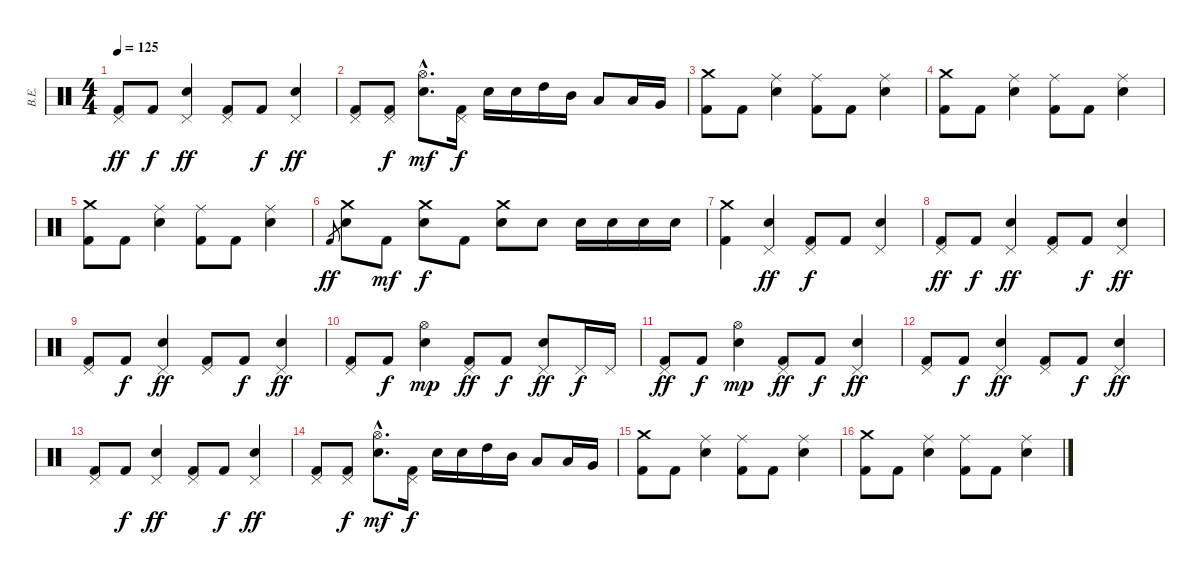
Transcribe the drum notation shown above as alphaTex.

\track ("В.Е." "В.Е.") {instrument percussion}
\staff {score}
\articulation defaults
\ts (4 4)
\tempo 125
\clef neutral
\ks c
("Pedal Hi-Hat (hit)" "Kick (hit) 2").8{dy ff} "Kick (hit) 2".8{dy f} ("Pedal Hi-Hat (hit)" "Electric Snare (hit)").4{dy ff} ("Pedal Hi-Hat (hit)" "Kick (hit) 2").8 "Kick (hit) 2".8{dy f} ("Pedal Hi-Hat (hit)" "Electric Snare (hit)").4{dy ff} |
("Pedal Hi-Hat (hit)" "Kick (hit) 2").8 ("Pedal Hi-Hat (hit)" "Kick (hit) 2").8{dy f} ("Hi-Hat (open)"{hac} "Electric Snare (hit)"{hac}).8{d dy mf} ("Pedal Hi-Hat (hit)" "Kick (hit) 2").16{dy f} "Electric Snare (hit)".16 "Electric Snare (hit)".16 "High Tom (hit)".16 "Mid Tom (hit)".16 "Low Tom (hit)".8 "Low Tom (hit)".16 "Very Low Tom (hit)".16 |
("Crash medium (hit)" "Kick (hit) 2").8 "Kick (hit) 2".8 ("Ride (middle)" "Electric Snare (hit)").4 ("Ride (middle)" "Kick (hit) 2").8 "Kick (hit) 2".8 ("Ride (middle)" "Electric Snare (hit)").4 |
("Crash medium (hit)" "Kick (hit) 2").8 "Kick (hit) 2".8 ("Ride (middle)" "Electric Snare (hit)").4 ("Ride (middle)" "Kick (hit) 2").8 "Kick (hit) 2".8 ("Ride (middle)" "Electric Snare (hit)").4 |
("Crash medium (hit)" "Kick (hit) 2").8 "Kick (hit) 2".8 ("Ride (middle)" "Electric Snare (hit)").4 ("Ride (middle)" "Kick (hit) 2").8 "Kick (hit) 2".8 ("Ride (middle)" "Electric Snare (hit)").4 |
"Kick (hit) 2".8{gr dy ff} ("Crash medium (hit)" "Electric Snare (hit)").8 "Kick (hit) 2".8{dy mf} ("Crash medium (hit)" "Electric Snare (hit)").8{dy f} "Kick (hit) 2".8 ("Crash medium (hit)" "Electric Snare (hit)").8 "Electric Snare (hit)".8 "Electric Snare (hit)".16 "Electric Snare (hit)".16 "Electric Snare (hit)".16 "Electric Snare (hit)".16 |
("Crash medium (hit)" "Kick (hit) 2").4 ("Pedal Hi-Hat (hit)" "Electric Snare (hit)").4{dy ff} ("Pedal Hi-Hat (hit)" "Kick (hit) 2").8{dy f} "Kick (hit) 2".8 ("Pedal Hi-Hat (hit)" "Electric Snare (hit)").4 |
("Pedal Hi-Hat (hit)" "Kick (hit) 2").8{dy ff} "Kick (hit) 2".8{dy f} ("Pedal Hi-Hat (hit)" "Electric Snare (hit)").4{dy ff} ("Pedal Hi-Hat (hit)" "Kick (hit) 2").8 "Kick (hit) 2".8{dy f} ("Pedal Hi-Hat (hit)" "Electric Snare (hit)").4{dy ff} |
("Pedal Hi-Hat (hit)" "Kick (hit) 2").8 "Kick (hit) 2".8{dy f} ("Pedal Hi-Hat (hit)" "Electric Snare (hit)").4{dy ff} ("Pedal Hi-Hat (hit)" "Kick (hit) 2").8 "Kick (hit) 2".8{dy f} ("Pedal Hi-Hat (hit)" "Electric Snare (hit)").4{dy ff} |
("Pedal Hi-Hat (hit)" "Kick (hit) 2").8 "Kick (hit) 2".8{dy f} ("Hi-Hat (open)" "Electric Snare (hit)").4{dy mp} ("Pedal Hi-Hat (hit)" "Kick (hit) 2").8{dy ff} "Kick (hit) 2".8{dy f} ("Pedal Hi-Hat (hit)" "Electric Snare (hit)").8{dy ff} "Pedal Hi-Hat (hit)".16{dy f} "Pedal Hi-Hat (hit)".16 |
("Pedal Hi-Hat (hit)" "Kick (hit) 2").8{dy ff} "Kick (hit) 2".8{dy f} ("Hi-Hat (open)" "Electric Snare (hit)").4{dy mp} ("Pedal Hi-Hat (hit)" "Kick (hit) 2").8{dy ff} "Kick (hit) 2".8{dy f} ("Pedal Hi-Hat (hit)" "Electric Snare (hit)").4{dy ff} |
("Pedal Hi-Hat (hit)" "Kick (hit) 2").8 "Kick (hit) 2".8{dy f} ("Pedal Hi-Hat (hit)" "Electric Snare (hit)").4{dy ff} ("Pedal Hi-Hat (hit)" "Kick (hit) 2").8 "Kick (hit) 2".8{dy f} ("Pedal Hi-Hat (hit)" "Electric Snare (hit)").4{dy ff} |
("Pedal Hi-Hat (hit)" "Kick (hit) 2").8 "Kick (hit) 2".8{dy f} ("Pedal Hi-Hat (hit)" "Electric Snare (hit)").4{dy ff} ("Pedal Hi-Hat (hit)" "Kick (hit) 2").8 "Kick (hit) 2".8{dy f} ("Pedal Hi-Hat (hit)" "Electric Snare (hit)").4{dy ff} |
("Pedal Hi-Hat (hit)" "Kick (hit) 2").8 ("Pedal Hi-Hat (hit)" "Kick (hit) 2").8{dy f} ("Hi-Hat (open)"{hac} "Electric Snare (hit)"{hac}).8{d dy mf} ("Pedal Hi-Hat (hit)" "Kick (hit) 2").16{dy f} "Electric Snare (hit)".16 "Electric Snare (hit)".16 "High Tom (hit)".16 "Mid Tom (hit)".16 "Low Tom (hit)".8 "Low Tom (hit)".16 "Very Low Tom (hit)".16 |
("Crash medium (hit)" "Kick (hit) 2").8 "Kick (hit) 2".8 ("Ride (middle)" "Electric Snare (hit)").4 ("Ride (middle)" "Kick (hit) 2").8 "Kick (hit) 2".8 ("Ride (middle)" "Electric Snare (hit)").4 |
("Crash medium (hit)" "Kick (hit) 2").8 "Kick (hit) 2".8 ("Ride (middle)" "Electric Snare (hit)").4 ("Ride (middle)" "Kick (hit) 2").8 "Kick (hit) 2".8 ("Ride (middle)" "Electric Snare (hit)").4
